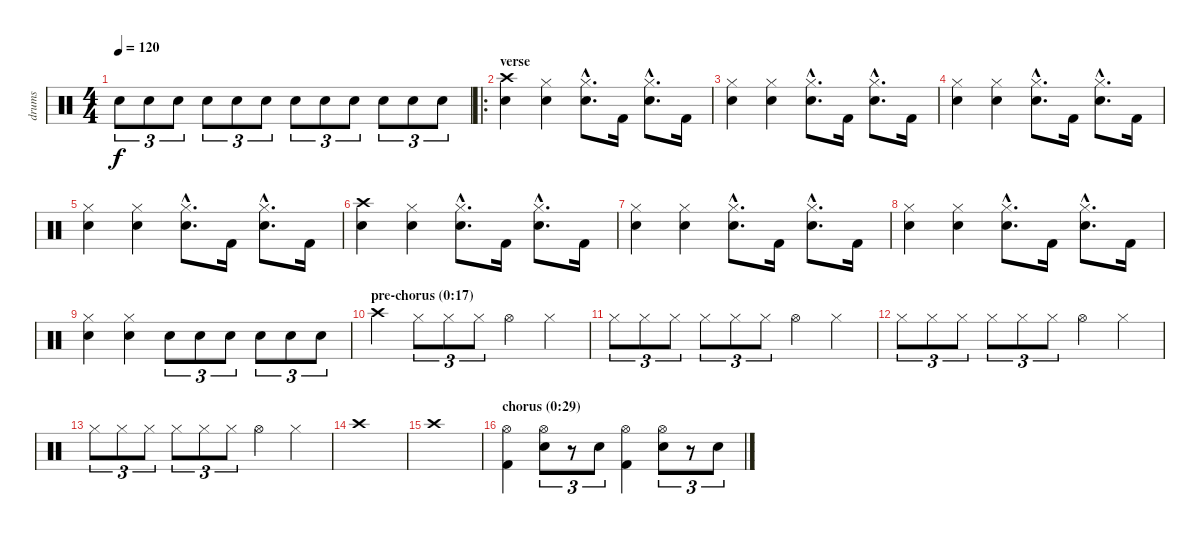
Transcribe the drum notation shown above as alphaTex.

\track ("drums" "drums") {instrument percussion}
\staff {score}
\articulation defaults
\ts (4 4)
\tempo 120
\clef neutral
\ks c "Snare (hit) 2".8{tu (3 2) dy f} "Snare (hit) 2".8{tu (3 2)} "Snare (hit) 2".8{tu (3 2)} "Snare (hit) 2".8{tu (3 2)} "Snare (hit) 2".8{tu (3 2)} "Snare (hit) 2".8{tu (3 2)} "Snare (hit) 2".8{tu (3 2)} "Snare (hit) 2".8{tu (3 2)} "Snare (hit) 2".8{tu (3 2)} "Snare (hit) 2".8{tu (3 2)} "Snare (hit) 2".8{tu (3 2)} "Snare (hit) 2".8{tu (3 2)}
|
\ro
\section ("" "verse")
("Crash high (hit)" "Snare (hit) 2").4 ("Hi-Hat (closed)" "Snare (hit) 2").4 ("Hi-Hat (closed)"{hac} "Snare (hit) 2"{hac}).8{d} "Kick (hit) 2".16 ("Hi-Hat (closed)"{hac} "Snare (hit) 2"{hac}).8{d} "Kick (hit) 2".16 |
("Hi-Hat (closed)" "Snare (hit) 2").4 ("Hi-Hat (closed)" "Snare (hit) 2").4 ("Hi-Hat (closed)"{hac} "Snare (hit) 2"{hac}).8{d} "Kick (hit) 2".16 ("Hi-Hat (closed)"{hac} "Snare (hit) 2"{hac}).8{d} "Kick (hit) 2".16 |
("Hi-Hat (closed)" "Snare (hit) 2").4 ("Hi-Hat (closed)" "Snare (hit) 2").4 ("Hi-Hat (closed)"{hac} "Snare (hit) 2"{hac}).8{d} "Kick (hit) 2".16 ("Hi-Hat (closed)"{hac} "Snare (hit) 2"{hac}).8{d} "Kick (hit) 2".16 |
("Hi-Hat (closed)" "Snare (hit) 2").4 ("Hi-Hat (closed)" "Snare (hit) 2").4 ("Hi-Hat (closed)"{hac} "Snare (hit) 2"{hac}).8{d} "Kick (hit) 2".16 ("Hi-Hat (closed)"{hac} "Snare (hit) 2"{hac}).8{d} "Kick (hit) 2".16 |
("Crash high (hit)" "Snare (hit) 2").4 ("Hi-Hat (closed)" "Snare (hit) 2").4 ("Hi-Hat (closed)"{hac} "Snare (hit) 2"{hac}).8{d} "Kick (hit) 2".16 ("Hi-Hat (closed)"{hac} "Snare (hit) 2"{hac}).8{d} "Kick (hit) 2".16 |
("Hi-Hat (closed)" "Snare (hit) 2").4 ("Hi-Hat (closed)" "Snare (hit) 2").4 ("Hi-Hat (closed)"{hac} "Snare (hit) 2"{hac}).8{d} "Kick (hit) 2".16 ("Hi-Hat (closed)"{hac} "Snare (hit) 2"{hac}).8{d} "Kick (hit) 2".16 |
("Hi-Hat (closed)" "Snare (hit) 2").4 ("Hi-Hat (closed)" "Snare (hit) 2").4 ("Hi-Hat (closed)"{hac} "Snare (hit) 2"{hac}).8{d} "Kick (hit) 2".16 ("Hi-Hat (closed)"{hac} "Snare (hit) 2"{hac}).8{d} "Kick (hit) 2".16 |
("Hi-Hat (closed)" "Snare (hit) 2").4 ("Hi-Hat (closed)" "Snare (hit) 2").4 "Snare (hit) 2".8{tu (3 2)} "Snare (hit) 2".8{tu (3 2)} "Snare (hit) 2".8{tu (3 2)} "Snare (hit) 2".8{tu (3 2)} "Snare (hit) 2".8{tu (3 2)} "Snare (hit) 2".8{tu (3 2)} |
\section ("" "pre-chorus (0:17)")
"Crash high (hit)".4 "Hi-Hat (closed)".8{tu (3 2)} "Hi-Hat (closed)".8{tu (3 2)} "Hi-Hat (closed)".8{tu (3 2)} "Hi-Hat (open)".4 "Hi-Hat (closed)".4 |
"Hi-Hat (closed)".8{tu (3 2)} "Hi-Hat (closed)".8{tu (3 2)} "Hi-Hat (closed)".8{tu (3 2)} "Hi-Hat (closed)".8{tu (3 2)} "Hi-Hat (closed)".8{tu (3 2)} "Hi-Hat (closed)".8{tu (3 2)} "Hi-Hat (open)".4 "Hi-Hat (closed)".4 |
"Hi-Hat (closed)".8{tu (3 2)} "Hi-Hat (closed)".8{tu (3 2)} "Hi-Hat (closed)".8{tu (3 2)} "Hi-Hat (closed)".8{tu (3 2)} "Hi-Hat (closed)".8{tu (3 2)} "Hi-Hat (closed)".8{tu (3 2)} "Hi-Hat (open)".4 "Hi-Hat (closed)".4 |
"Hi-Hat (closed)".8{tu (3 2)} "Hi-Hat (closed)".8{tu (3 2)} "Hi-Hat (closed)".8{tu (3 2)} "Hi-Hat (closed)".8{tu (3 2)} "Hi-Hat (closed)".8{tu (3 2)} "Hi-Hat (closed)".8{tu (3 2)} "Hi-Hat (open)".4 "Hi-Hat (closed)".4 |
"Crash high (hit)".1 |
"Crash high (hit)".1 |
\section ("" "chorus (0:29)")
("Hi-Hat (open)" "Kick (hit) 2").4 ("Hi-Hat (open)" "Snare (hit) 2").8{tu (3 2)} r.8{tu (3 2)} "Snare (hit) 2".8{tu (3 2)} ("Hi-Hat (open)" "Kick (hit) 2").4 ("Hi-Hat (open)" "Snare (hit) 2").8{tu (3 2)} r.8{tu (3 2)} "Snare (hit) 2".8{tu (3 2)}
